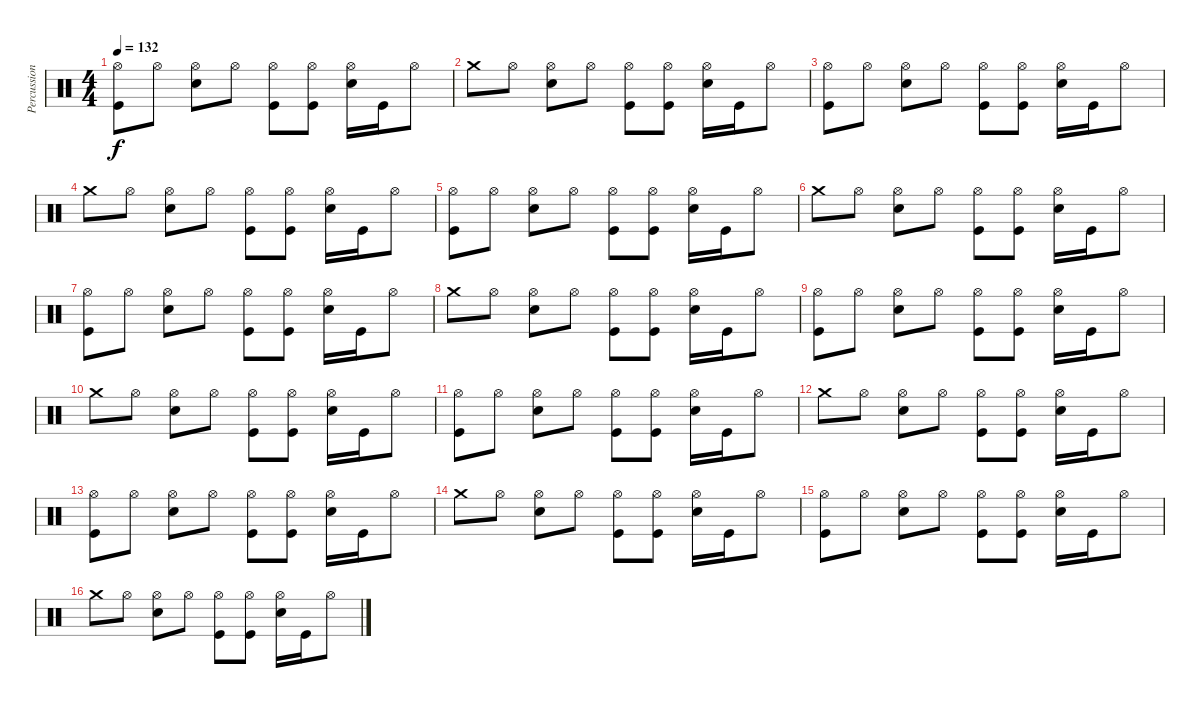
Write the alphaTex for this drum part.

\track ("Percussions" "Percussion") {instrument percussion}
\staff {score}
\articulation defaults
\ts (4 4)
\tempo 132
\clef neutral
\ks c
("Hi-Hat (open)" "Kick (hit)").8{dy f} "Hi-Hat (open)".8 ("Hi-Hat (open)" "Electric Snare (hit)").8 "Hi-Hat (open)".8 ("Hi-Hat (open)" "Kick (hit)").8 ("Hi-Hat (open)" "Kick (hit)").8 ("Hi-Hat (open)" "Electric Snare (hit)").16 "Kick (hit)".16 "Hi-Hat (open)".8 |
"Crash medium (hit)".8 "Hi-Hat (open)".8 ("Hi-Hat (open)" "Electric Snare (hit)").8 "Hi-Hat (open)".8 ("Hi-Hat (open)" "Kick (hit)").8 ("Hi-Hat (open)" "Kick (hit)").8 ("Hi-Hat (open)" "Electric Snare (hit)").16 "Kick (hit)".16 "Hi-Hat (open)".8 |
("Hi-Hat (open)" "Kick (hit)").8 "Hi-Hat (open)".8 ("Hi-Hat (open)" "Electric Snare (hit)").8 "Hi-Hat (open)".8 ("Hi-Hat (open)" "Kick (hit)").8 ("Hi-Hat (open)" "Kick (hit)").8 ("Hi-Hat (open)" "Electric Snare (hit)").16 "Kick (hit)".16 "Hi-Hat (open)".8 |
"Crash medium (hit)".8 "Hi-Hat (open)".8 ("Hi-Hat (open)" "Electric Snare (hit)").8 "Hi-Hat (open)".8 ("Hi-Hat (open)" "Kick (hit)").8 ("Hi-Hat (open)" "Kick (hit)").8 ("Hi-Hat (open)" "Electric Snare (hit)").16 "Kick (hit)".16 "Hi-Hat (open)".8 |
("Hi-Hat (open)" "Kick (hit)").8 "Hi-Hat (open)".8 ("Hi-Hat (open)" "Electric Snare (hit)").8 "Hi-Hat (open)".8 ("Hi-Hat (open)" "Kick (hit)").8 ("Hi-Hat (open)" "Kick (hit)").8 ("Hi-Hat (open)" "Electric Snare (hit)").16 "Kick (hit)".16 "Hi-Hat (open)".8 |
"Crash medium (hit)".8 "Hi-Hat (open)".8 ("Hi-Hat (open)" "Electric Snare (hit)").8 "Hi-Hat (open)".8 ("Hi-Hat (open)" "Kick (hit)").8 ("Hi-Hat (open)" "Kick (hit)").8 ("Hi-Hat (open)" "Electric Snare (hit)").16 "Kick (hit)".16 "Hi-Hat (open)".8 |
("Hi-Hat (open)" "Kick (hit)").8 "Hi-Hat (open)".8 ("Hi-Hat (open)" "Electric Snare (hit)").8 "Hi-Hat (open)".8 ("Hi-Hat (open)" "Kick (hit)").8 ("Hi-Hat (open)" "Kick (hit)").8 ("Hi-Hat (open)" "Electric Snare (hit)").16 "Kick (hit)".16 "Hi-Hat (open)".8 |
"Crash medium (hit)".8 "Hi-Hat (open)".8 ("Hi-Hat (open)" "Electric Snare (hit)").8 "Hi-Hat (open)".8 ("Hi-Hat (open)" "Kick (hit)").8 ("Hi-Hat (open)" "Kick (hit)").8 ("Hi-Hat (open)" "Electric Snare (hit)").16 "Kick (hit)".16 "Hi-Hat (open)".8 |
("Hi-Hat (open)" "Kick (hit)").8 "Hi-Hat (open)".8 ("Hi-Hat (open)" "Electric Snare (hit)").8 "Hi-Hat (open)".8 ("Hi-Hat (open)" "Kick (hit)").8 ("Hi-Hat (open)" "Kick (hit)").8 ("Hi-Hat (open)" "Electric Snare (hit)").16 "Kick (hit)".16 "Hi-Hat (open)".8 |
"Crash medium (hit)".8 "Hi-Hat (open)".8 ("Hi-Hat (open)" "Electric Snare (hit)").8 "Hi-Hat (open)".8 ("Hi-Hat (open)" "Kick (hit)").8 ("Hi-Hat (open)" "Kick (hit)").8 ("Hi-Hat (open)" "Electric Snare (hit)").16 "Kick (hit)".16 "Hi-Hat (open)".8 |
("Hi-Hat (open)" "Kick (hit)").8 "Hi-Hat (open)".8 ("Hi-Hat (open)" "Electric Snare (hit)").8 "Hi-Hat (open)".8 ("Hi-Hat (open)" "Kick (hit)").8 ("Hi-Hat (open)" "Kick (hit)").8 ("Hi-Hat (open)" "Electric Snare (hit)").16 "Kick (hit)".16 "Hi-Hat (open)".8 |
"Crash medium (hit)".8 "Hi-Hat (open)".8 ("Hi-Hat (open)" "Electric Snare (hit)").8 "Hi-Hat (open)".8 ("Hi-Hat (open)" "Kick (hit)").8 ("Hi-Hat (open)" "Kick (hit)").8 ("Hi-Hat (open)" "Electric Snare (hit)").16 "Kick (hit)".16 "Hi-Hat (open)".8 |
("Hi-Hat (open)" "Kick (hit)").8 "Hi-Hat (open)".8 ("Hi-Hat (open)" "Electric Snare (hit)").8 "Hi-Hat (open)".8 ("Hi-Hat (open)" "Kick (hit)").8 ("Hi-Hat (open)" "Kick (hit)").8 ("Hi-Hat (open)" "Electric Snare (hit)").16 "Kick (hit)".16 "Hi-Hat (open)".8 |
"Crash medium (hit)".8 "Hi-Hat (open)".8 ("Hi-Hat (open)" "Electric Snare (hit)").8 "Hi-Hat (open)".8 ("Hi-Hat (open)" "Kick (hit)").8 ("Hi-Hat (open)" "Kick (hit)").8 ("Hi-Hat (open)" "Electric Snare (hit)").16 "Kick (hit)".16 "Hi-Hat (open)".8 |
("Hi-Hat (open)" "Kick (hit)").8 "Hi-Hat (open)".8 ("Hi-Hat (open)" "Electric Snare (hit)").8 "Hi-Hat (open)".8 ("Hi-Hat (open)" "Kick (hit)").8 ("Hi-Hat (open)" "Kick (hit)").8 ("Hi-Hat (open)" "Electric Snare (hit)").16 "Kick (hit)".16 "Hi-Hat (open)".8 |
"Crash medium (hit)".8 "Hi-Hat (open)".8 ("Hi-Hat (open)" "Electric Snare (hit)").8 "Hi-Hat (open)".8 ("Hi-Hat (open)" "Kick (hit)").8 ("Hi-Hat (open)" "Kick (hit)").8 ("Hi-Hat (open)" "Electric Snare (hit)").16 "Kick (hit)".16 "Hi-Hat (open)".8
